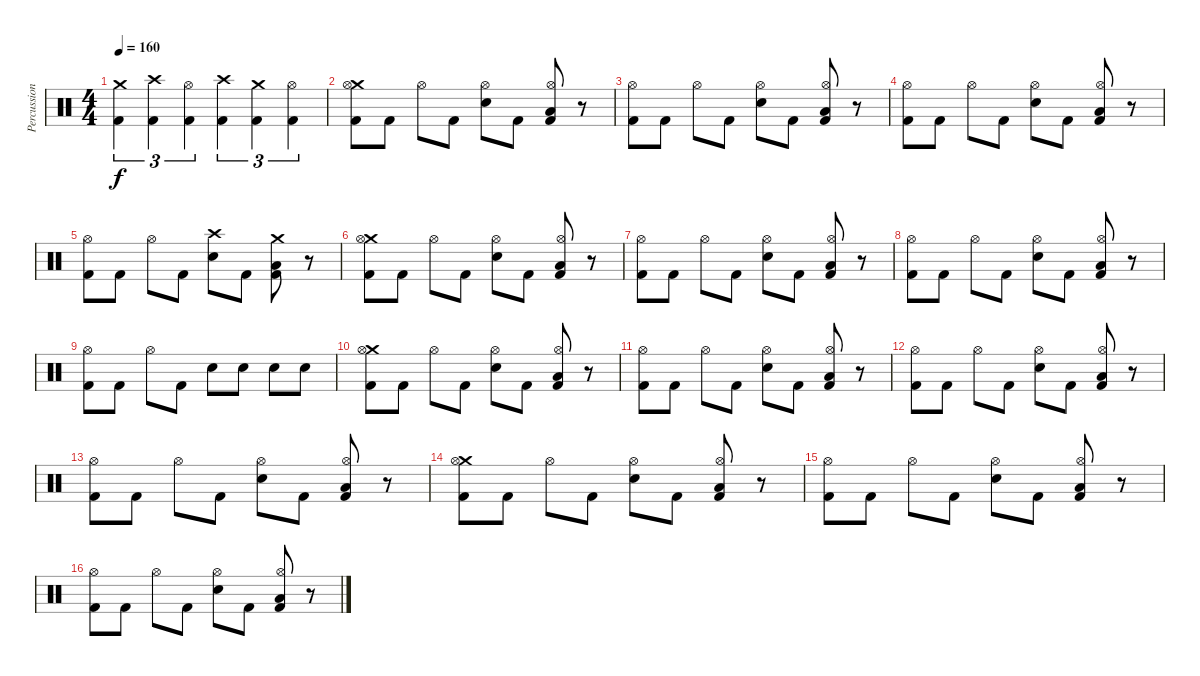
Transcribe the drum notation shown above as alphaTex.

\track ("Percussioni" "Percussion") {instrument percussion}
\staff {score}
\articulation defaults
\ts (4 4)
\tempo 160
\clef neutral
\ks c
("Crash medium (hit)" "Kick (hit) 2").4{tu (3 2) dy f} ("Crash high (hit)" "Kick (hit) 2").4{tu (3 2)} ("Hi-Hat (open)" "Kick (hit) 2").4{tu (3 2)} ("Crash high (hit)" "Kick (hit) 2").4{tu (3 2)} ("Crash medium (hit)" "Kick (hit) 2").4{tu (3 2)} ("Hi-Hat (open)" "Kick (hit) 2").4{tu (3 2)} |
("Crash medium (hit)" "Hi-Hat (open)" "Kick (hit) 2").8 "Kick (hit) 2".8 "Hi-Hat (open)".8 "Kick (hit) 2".8 ("Hi-Hat (open)" "Snare (hit) 2").8 "Kick (hit) 2".8 ("Hi-Hat (open)" "Low Floor Tom (hit)" "Kick (hit) 2").8 r.8 |
("Hi-Hat (open)" "Kick (hit) 2").8 "Kick (hit) 2".8 "Hi-Hat (open)".8 "Kick (hit) 2".8 ("Hi-Hat (open)" "Snare (hit) 2").8 "Kick (hit) 2".8 ("Hi-Hat (open)" "Low Floor Tom (hit)" "Kick (hit) 2").8 r.8 |
("Hi-Hat (open)" "Kick (hit) 2").8 "Kick (hit) 2".8 "Hi-Hat (open)".8 "Kick (hit) 2".8 ("Hi-Hat (open)" "Snare (hit) 2").8 "Kick (hit) 2".8 ("Hi-Hat (open)" "Low Floor Tom (hit)" "Kick (hit) 2").8 r.8 |
("Hi-Hat (open)" "Kick (hit) 2").8 "Kick (hit) 2".8 "Hi-Hat (open)".8 "Kick (hit) 2".8 ("Crash high (hit)" "Snare (hit) 2").8 "Kick (hit) 2".8 ("Crash medium (hit)" "Low Floor Tom (hit)" "Kick (hit) 2").8 r.8 |
("Crash medium (hit)" "Hi-Hat (open)" "Kick (hit) 2").8 "Kick (hit) 2".8 "Hi-Hat (open)".8 "Kick (hit) 2".8 ("Hi-Hat (open)" "Snare (hit) 2").8 "Kick (hit) 2".8 ("Hi-Hat (open)" "Low Floor Tom (hit)" "Kick (hit) 2").8 r.8 |
("Hi-Hat (open)" "Kick (hit) 2").8 "Kick (hit) 2".8 "Hi-Hat (open)".8 "Kick (hit) 2".8 ("Hi-Hat (open)" "Snare (hit) 2").8 "Kick (hit) 2".8 ("Hi-Hat (open)" "Low Floor Tom (hit)" "Kick (hit) 2").8 r.8 |
("Hi-Hat (open)" "Kick (hit) 2").8 "Kick (hit) 2".8 "Hi-Hat (open)".8 "Kick (hit) 2".8 ("Hi-Hat (open)" "Snare (hit) 2").8 "Kick (hit) 2".8 ("Hi-Hat (open)" "Low Floor Tom (hit)" "Kick (hit) 2").8 r.8 |
("Hi-Hat (open)" "Kick (hit) 2").8 "Kick (hit) 2".8 "Hi-Hat (open)".8 "Kick (hit) 2".8 "Snare (hit) 2".8 "Snare (hit) 2".8 "Snare (hit) 2".8 "Snare (hit) 2".8 |
("Crash medium (hit)" "Hi-Hat (open)" "Kick (hit) 2").8 "Kick (hit) 2".8 "Hi-Hat (open)".8 "Kick (hit) 2".8 ("Hi-Hat (open)" "Snare (hit) 2").8 "Kick (hit) 2".8 ("Hi-Hat (open)" "Low Floor Tom (hit)" "Kick (hit) 2").8 r.8 |
("Hi-Hat (open)" "Kick (hit) 2").8 "Kick (hit) 2".8 "Hi-Hat (open)".8 "Kick (hit) 2".8 ("Hi-Hat (open)" "Snare (hit) 2").8 "Kick (hit) 2".8 ("Hi-Hat (open)" "Low Floor Tom (hit)" "Kick (hit) 2").8 r.8 |
("Hi-Hat (open)" "Kick (hit) 2").8 "Kick (hit) 2".8 "Hi-Hat (open)".8 "Kick (hit) 2".8 ("Hi-Hat (open)" "Snare (hit) 2").8 "Kick (hit) 2".8 ("Hi-Hat (open)" "Low Floor Tom (hit)" "Kick (hit) 2").8 r.8 |
("Hi-Hat (open)" "Kick (hit) 2").8 "Kick (hit) 2".8 "Hi-Hat (open)".8 "Kick (hit) 2".8 ("Hi-Hat (open)" "Snare (hit) 2").8 "Kick (hit) 2".8 ("Hi-Hat (open)" "Low Floor Tom (hit)" "Kick (hit) 2").8 r.8 |
("Crash medium (hit)" "Hi-Hat (open)" "Kick (hit) 2").8 "Kick (hit) 2".8 "Hi-Hat (open)".8 "Kick (hit) 2".8 ("Hi-Hat (open)" "Snare (hit) 2").8 "Kick (hit) 2".8 ("Hi-Hat (open)" "Low Floor Tom (hit)" "Kick (hit) 2").8 r.8 |
("Hi-Hat (open)" "Kick (hit) 2").8 "Kick (hit) 2".8 "Hi-Hat (open)".8 "Kick (hit) 2".8 ("Hi-Hat (open)" "Snare (hit) 2").8 "Kick (hit) 2".8 ("Hi-Hat (open)" "Low Floor Tom (hit)" "Kick (hit) 2").8 r.8 |
("Hi-Hat (open)" "Kick (hit) 2").8 "Kick (hit) 2".8 "Hi-Hat (open)".8 "Kick (hit) 2".8 ("Hi-Hat (open)" "Snare (hit) 2").8 "Kick (hit) 2".8 ("Hi-Hat (open)" "Low Floor Tom (hit)" "Kick (hit) 2").8 r.8
